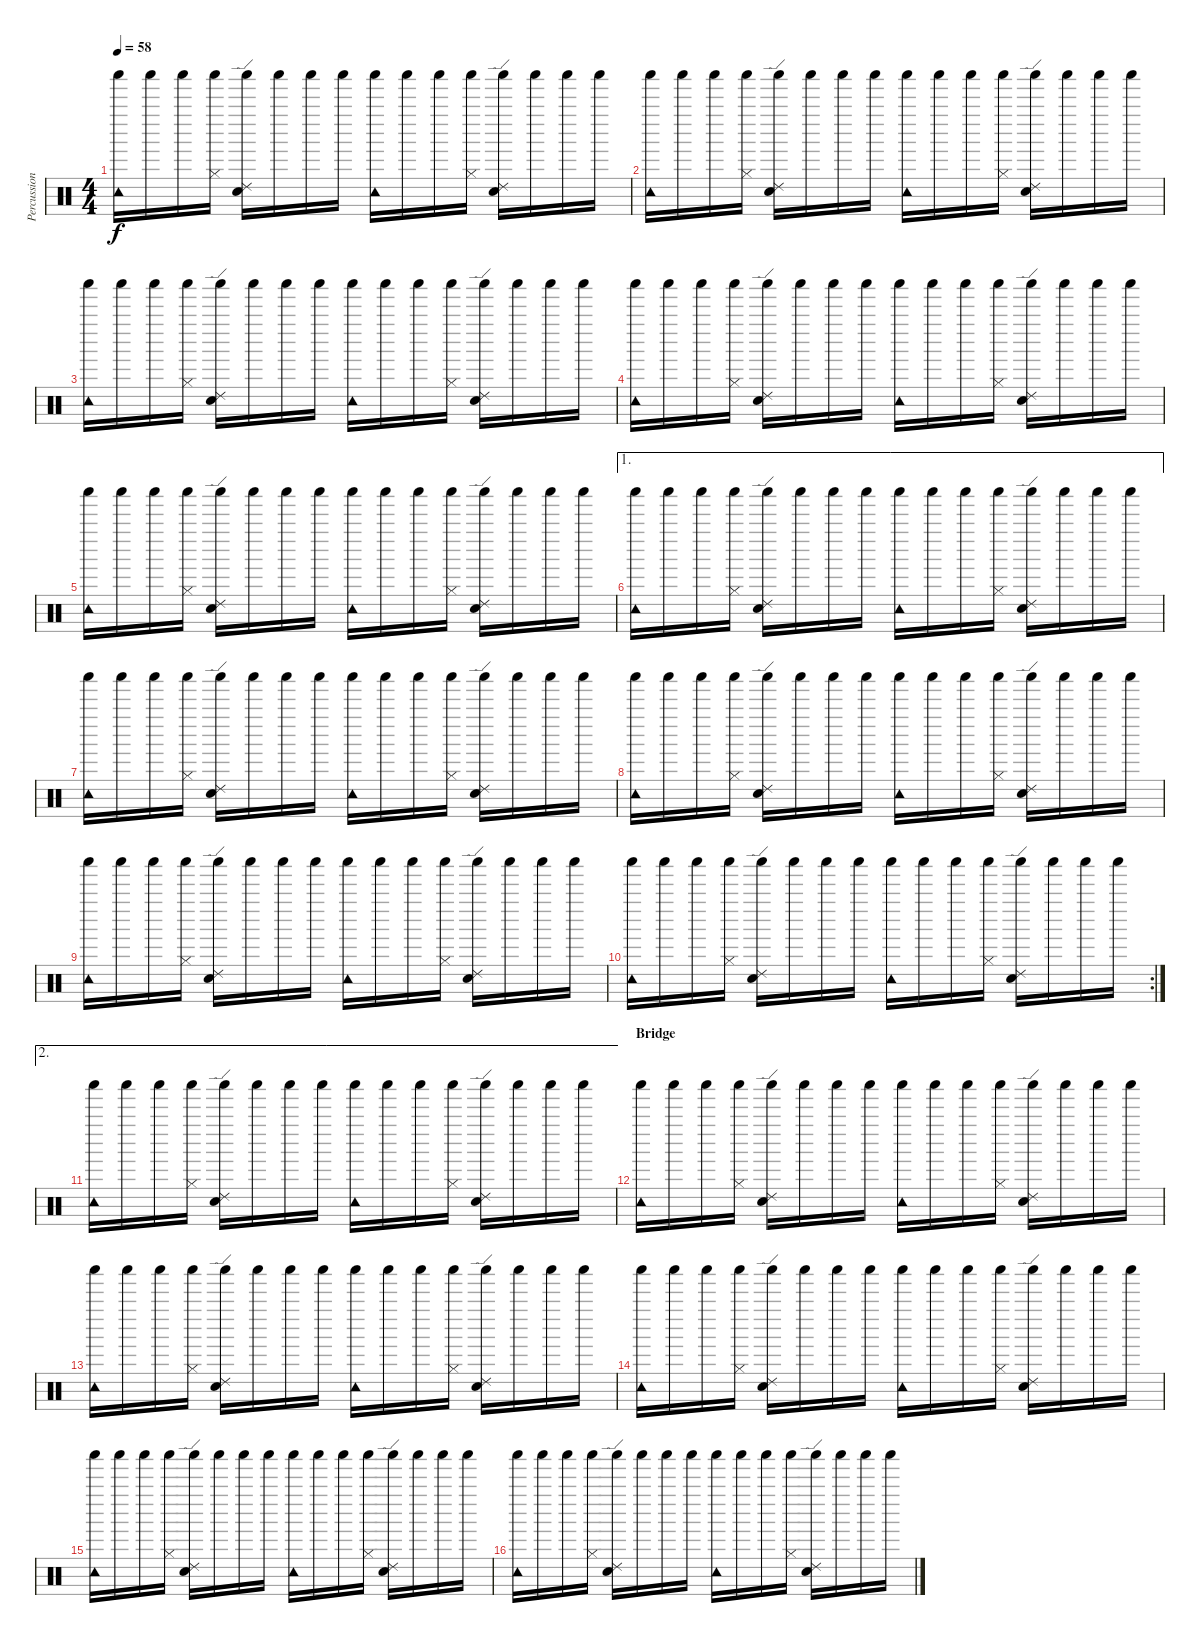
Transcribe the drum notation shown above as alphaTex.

\track ("Percussion" "Percussion") {instrument percussion}
\staff {score}
\articulation defaults
\ts (4 4)
\tempo 58
\clef neutral
\ks c
("Shaker (hit)" "Tambourine (hit)").16{dy f} "Shaker (hit)".16 "Shaker (hit)".16 ("Shaker (hit)" "Hi-Hat (closed)").16 ("Shaker (hit)" "Ride (edge) 2" "Snare (hit) 2").16 "Shaker (hit)".16 "Shaker (hit)".16 "Shaker (hit)".16 ("Shaker (hit)" "Tambourine (hit)").16 "Shaker (hit)".16 "Shaker (hit)".16 ("Shaker (hit)" "Hi-Hat (closed)").16 ("Shaker (hit)" "Ride (edge) 2" "Snare (hit) 2").16 "Shaker (hit)".16 "Shaker (hit)".16 "Shaker (hit)".16 |
("Shaker (hit)" "Tambourine (hit)").16 "Shaker (hit)".16 "Shaker (hit)".16 ("Shaker (hit)" "Hi-Hat (closed)").16 ("Shaker (hit)" "Ride (edge) 2" "Snare (hit) 2").16 "Shaker (hit)".16 "Shaker (hit)".16 "Shaker (hit)".16 ("Shaker (hit)" "Tambourine (hit)").16 "Shaker (hit)".16 "Shaker (hit)".16 ("Shaker (hit)" "Hi-Hat (closed)").16 ("Shaker (hit)" "Ride (edge) 2" "Snare (hit) 2").16 "Shaker (hit)".16 "Shaker (hit)".16 "Shaker (hit)".16 |
("Shaker (hit)" "Tambourine (hit)").16 "Shaker (hit)".16 "Shaker (hit)".16 ("Shaker (hit)" "Hi-Hat (closed)").16 ("Shaker (hit)" "Ride (edge) 2" "Snare (hit) 2").16 "Shaker (hit)".16 "Shaker (hit)".16 "Shaker (hit)".16 ("Shaker (hit)" "Tambourine (hit)").16 "Shaker (hit)".16 "Shaker (hit)".16 ("Shaker (hit)" "Hi-Hat (closed)").16 ("Shaker (hit)" "Ride (edge) 2" "Snare (hit) 2").16 "Shaker (hit)".16 "Shaker (hit)".16 "Shaker (hit)".16 |
("Shaker (hit)" "Tambourine (hit)").16 "Shaker (hit)".16 "Shaker (hit)".16 ("Shaker (hit)" "Hi-Hat (closed)").16 ("Shaker (hit)" "Ride (edge) 2" "Snare (hit) 2").16 "Shaker (hit)".16 "Shaker (hit)".16 "Shaker (hit)".16 ("Shaker (hit)" "Tambourine (hit)").16 "Shaker (hit)".16 "Shaker (hit)".16 ("Shaker (hit)" "Hi-Hat (closed)").16 ("Shaker (hit)" "Ride (edge) 2" "Snare (hit) 2").16 "Shaker (hit)".16 "Shaker (hit)".16 "Shaker (hit)".16 |
("Shaker (hit)" "Tambourine (hit)").16 "Shaker (hit)".16 "Shaker (hit)".16 ("Shaker (hit)" "Hi-Hat (closed)").16 ("Shaker (hit)" "Ride (edge) 2" "Snare (hit) 2").16 "Shaker (hit)".16 "Shaker (hit)".16 "Shaker (hit)".16 ("Shaker (hit)" "Tambourine (hit)").16 "Shaker (hit)".16 "Shaker (hit)".16 ("Shaker (hit)" "Hi-Hat (closed)").16 ("Shaker (hit)" "Ride (edge) 2" "Snare (hit) 2").16 "Shaker (hit)".16 "Shaker (hit)".16 "Shaker (hit)".16 |
\ae 1
("Shaker (hit)" "Tambourine (hit)").16 "Shaker (hit)".16 "Shaker (hit)".16 ("Shaker (hit)" "Hi-Hat (closed)").16 ("Shaker (hit)" "Ride (edge) 2" "Snare (hit) 2").16 "Shaker (hit)".16 "Shaker (hit)".16 "Shaker (hit)".16 ("Shaker (hit)" "Tambourine (hit)").16 "Shaker (hit)".16 "Shaker (hit)".16 ("Shaker (hit)" "Hi-Hat (closed)").16 ("Shaker (hit)" "Ride (edge) 2" "Snare (hit) 2").16 "Shaker (hit)".16 "Shaker (hit)".16 "Shaker (hit)".16 |
("Shaker (hit)" "Tambourine (hit)").16 "Shaker (hit)".16 "Shaker (hit)".16 ("Shaker (hit)" "Hi-Hat (closed)").16 ("Shaker (hit)" "Ride (edge) 2" "Snare (hit) 2").16 "Shaker (hit)".16 "Shaker (hit)".16 "Shaker (hit)".16 ("Shaker (hit)" "Tambourine (hit)").16 "Shaker (hit)".16 "Shaker (hit)".16 ("Shaker (hit)" "Hi-Hat (closed)").16 ("Shaker (hit)" "Ride (edge) 2" "Snare (hit) 2").16 "Shaker (hit)".16 "Shaker (hit)".16 "Shaker (hit)".16 |
("Shaker (hit)" "Tambourine (hit)").16 "Shaker (hit)".16 "Shaker (hit)".16 ("Shaker (hit)" "Hi-Hat (closed)").16 ("Shaker (hit)" "Ride (edge) 2" "Snare (hit) 2").16 "Shaker (hit)".16 "Shaker (hit)".16 "Shaker (hit)".16 ("Shaker (hit)" "Tambourine (hit)").16 "Shaker (hit)".16 "Shaker (hit)".16 ("Shaker (hit)" "Hi-Hat (closed)").16 ("Shaker (hit)" "Ride (edge) 2" "Snare (hit) 2").16 "Shaker (hit)".16 "Shaker (hit)".16 "Shaker (hit)".16 |
("Shaker (hit)" "Tambourine (hit)").16 "Shaker (hit)".16 "Shaker (hit)".16 ("Shaker (hit)" "Hi-Hat (closed)").16 ("Shaker (hit)" "Ride (edge) 2" "Snare (hit) 2").16 "Shaker (hit)".16 "Shaker (hit)".16 "Shaker (hit)".16 ("Shaker (hit)" "Tambourine (hit)").16 "Shaker (hit)".16 "Shaker (hit)".16 ("Shaker (hit)" "Hi-Hat (closed)").16 ("Shaker (hit)" "Ride (edge) 2" "Snare (hit) 2").16 "Shaker (hit)".16 "Shaker (hit)".16 "Shaker (hit)".16 |
\rc 2
("Shaker (hit)" "Tambourine (hit)").16 "Shaker (hit)".16 "Shaker (hit)".16 ("Shaker (hit)" "Hi-Hat (closed)").16 ("Shaker (hit)" "Ride (edge) 2" "Snare (hit) 2").16 "Shaker (hit)".16 "Shaker (hit)".16 "Shaker (hit)".16 ("Shaker (hit)" "Tambourine (hit)").16 "Shaker (hit)".16 "Shaker (hit)".16 ("Shaker (hit)" "Hi-Hat (closed)").16 ("Shaker (hit)" "Ride (edge) 2" "Snare (hit) 2").16 "Shaker (hit)".16 "Shaker (hit)".16 "Shaker (hit)".16 |
\ae 2
("Shaker (hit)" "Tambourine (hit)").16 "Shaker (hit)".16 "Shaker (hit)".16 ("Shaker (hit)" "Hi-Hat (closed)").16 ("Shaker (hit)" "Ride (edge) 2" "Snare (hit) 2").16 "Shaker (hit)".16 "Shaker (hit)".16 "Shaker (hit)".16 ("Shaker (hit)" "Tambourine (hit)").16 "Shaker (hit)".16 "Shaker (hit)".16 ("Shaker (hit)" "Hi-Hat (closed)").16 ("Shaker (hit)" "Ride (edge) 2" "Snare (hit) 2").16 "Shaker (hit)".16 "Shaker (hit)".16 "Shaker (hit)".16 |
\section ("" "Bridge")
("Shaker (hit)" "Tambourine (hit)").16 "Shaker (hit)".16 "Shaker (hit)".16 ("Shaker (hit)" "Hi-Hat (closed)").16 ("Shaker (hit)" "Ride (edge) 2" "Snare (hit) 2").16 "Shaker (hit)".16 "Shaker (hit)".16 "Shaker (hit)".16 ("Shaker (hit)" "Tambourine (hit)").16 "Shaker (hit)".16 "Shaker (hit)".16 ("Shaker (hit)" "Hi-Hat (closed)").16 ("Shaker (hit)" "Ride (edge) 2" "Snare (hit) 2").16 "Shaker (hit)".16 "Shaker (hit)".16 "Shaker (hit)".16 |
("Shaker (hit)" "Tambourine (hit)").16 "Shaker (hit)".16 "Shaker (hit)".16 ("Shaker (hit)" "Hi-Hat (closed)").16 ("Shaker (hit)" "Ride (edge) 2" "Snare (hit) 2").16 "Shaker (hit)".16 "Shaker (hit)".16 "Shaker (hit)".16 ("Shaker (hit)" "Tambourine (hit)").16 "Shaker (hit)".16 "Shaker (hit)".16 ("Shaker (hit)" "Hi-Hat (closed)").16 ("Shaker (hit)" "Ride (edge) 2" "Snare (hit) 2").16 "Shaker (hit)".16 "Shaker (hit)".16 "Shaker (hit)".16 |
("Shaker (hit)" "Tambourine (hit)").16 "Shaker (hit)".16 "Shaker (hit)".16 ("Shaker (hit)" "Hi-Hat (closed)").16 ("Shaker (hit)" "Ride (edge) 2" "Snare (hit) 2").16 "Shaker (hit)".16 "Shaker (hit)".16 "Shaker (hit)".16 ("Shaker (hit)" "Tambourine (hit)").16 "Shaker (hit)".16 "Shaker (hit)".16 ("Shaker (hit)" "Hi-Hat (closed)").16 ("Shaker (hit)" "Ride (edge) 2" "Snare (hit) 2").16 "Shaker (hit)".16 "Shaker (hit)".16 "Shaker (hit)".16 |
("Shaker (hit)" "Tambourine (hit)").16 "Shaker (hit)".16 "Shaker (hit)".16 ("Shaker (hit)" "Hi-Hat (closed)").16 ("Shaker (hit)" "Ride (edge) 2" "Snare (hit) 2").16 "Shaker (hit)".16 "Shaker (hit)".16 "Shaker (hit)".16 ("Shaker (hit)" "Tambourine (hit)").16 "Shaker (hit)".16 "Shaker (hit)".16 ("Shaker (hit)" "Hi-Hat (closed)").16 ("Shaker (hit)" "Ride (edge) 2" "Snare (hit) 2").16 "Shaker (hit)".16 "Shaker (hit)".16 "Shaker (hit)".16 |
("Shaker (hit)" "Tambourine (hit)").16 "Shaker (hit)".16 "Shaker (hit)".16 ("Shaker (hit)" "Hi-Hat (closed)").16 ("Shaker (hit)" "Ride (edge) 2" "Snare (hit) 2").16 "Shaker (hit)".16 "Shaker (hit)".16 "Shaker (hit)".16 ("Shaker (hit)" "Tambourine (hit)").16 "Shaker (hit)".16 "Shaker (hit)".16 ("Shaker (hit)" "Hi-Hat (closed)").16 ("Shaker (hit)" "Ride (edge) 2" "Snare (hit) 2").16 "Shaker (hit)".16 "Shaker (hit)".16 "Shaker (hit)".16
